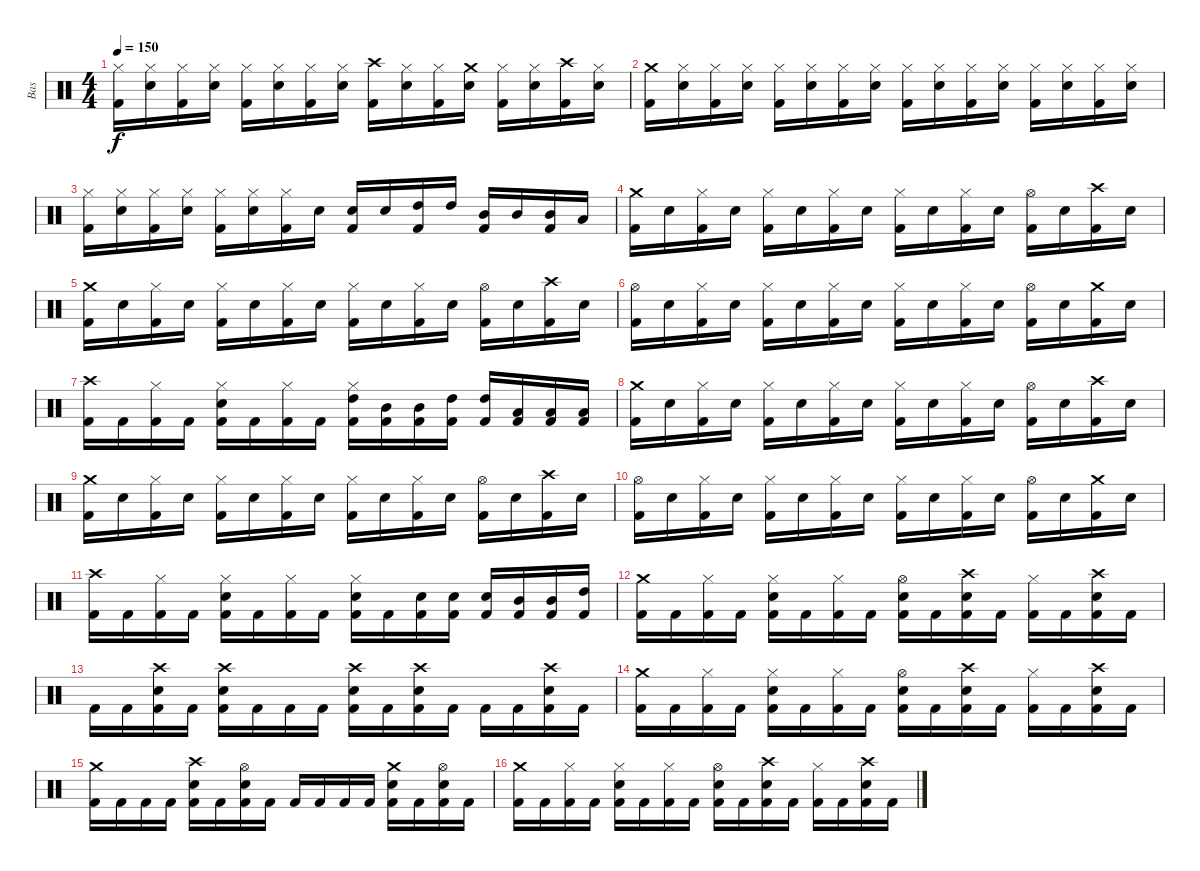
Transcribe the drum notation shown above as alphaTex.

\track ("Bas" "Bas") {instrument percussion}
\staff {score}
\articulation defaults
\ts (4 4)
\tempo 150
\clef neutral
\ks c
("Hi-Hat (closed)" "Kick (hit) 2").16{dy f} ("Hi-Hat (closed)" "Snare (hit) 2").16 ("Hi-Hat (closed)" "Kick (hit) 2").16 ("Hi-Hat (closed)" "Snare (hit) 2").16 ("Hi-Hat (closed)" "Kick (hit) 2").16 ("Hi-Hat (closed)" "Snare (hit) 2").16 ("Hi-Hat (closed)" "Kick (hit) 2").16 ("Hi-Hat (closed)" "Snare (hit) 2").16 ("Crash high (hit)" "Kick (hit) 2").16 ("Hi-Hat (closed)" "Snare (hit) 2").16 ("Hi-Hat (closed)" "Kick (hit) 2").16 ("Crash medium (hit)" "Snare (hit) 2").16 ("Hi-Hat (closed)" "Kick (hit) 2").16 ("Hi-Hat (closed)" "Snare (hit) 2").16 ("Crash high (hit)" "Kick (hit) 2").16 ("Hi-Hat (closed)" "Snare (hit) 2").16 |
("Crash medium (hit)" "Kick (hit) 2").16 ("Hi-Hat (closed)" "Snare (hit) 2").16 ("Hi-Hat (closed)" "Kick (hit) 2").16 ("Hi-Hat (closed)" "Snare (hit) 2").16 ("Hi-Hat (closed)" "Kick (hit) 2").16 ("Hi-Hat (closed)" "Snare (hit) 2").16 ("Hi-Hat (closed)" "Kick (hit) 2").16 ("Hi-Hat (closed)" "Snare (hit) 2").16 ("Hi-Hat (closed)" "Kick (hit) 2").16 ("Hi-Hat (closed)" "Snare (hit) 2").16 ("Hi-Hat (closed)" "Kick (hit) 2").16 ("Hi-Hat (closed)" "Snare (hit) 2").16 ("Hi-Hat (closed)" "Kick (hit) 2").16 ("Hi-Hat (closed)" "Snare (hit) 2").16 ("Hi-Hat (closed)" "Kick (hit) 2").16 ("Hi-Hat (closed)" "Snare (hit) 2").16 |
("Hi-Hat (closed)" "Kick (hit) 2").16 ("Hi-Hat (closed)" "Snare (hit) 2").16 ("Hi-Hat (closed)" "Kick (hit) 2").16 ("Hi-Hat (closed)" "Snare (hit) 2").16 ("Hi-Hat (closed)" "Kick (hit) 2").16 ("Hi-Hat (closed)" "Snare (hit) 2").16 ("Hi-Hat (closed)" "Kick (hit) 2").16 "Snare (hit) 2".16 ("Snare (hit) 2" "Kick (hit) 2").16 "Snare (hit) 2".16 ("High Tom (hit)" "Kick (hit) 2").16 "High Tom (hit)".16 ("Mid Tom (hit)" "Kick (hit) 2").16 "Mid Tom (hit)".16 ("Mid Tom (hit)" "Kick (hit) 2").16 "Low Tom (hit)".16 |
("Crash medium (hit)" "Kick (hit) 2").16 "Snare (hit) 2".16 ("Hi-Hat (closed)" "Kick (hit) 2").16 "Snare (hit) 2".16 ("Hi-Hat (closed)" "Kick (hit) 2").16 "Snare (hit) 2".16 ("Hi-Hat (closed)" "Kick (hit) 2").16 "Snare (hit) 2".16 ("Hi-Hat (closed)" "Kick (hit) 2").16 "Snare (hit) 2".16 ("Hi-Hat (closed)" "Kick (hit) 2").16 "Snare (hit) 2".16 ("Hi-Hat (open)" "Kick (hit) 2").16 "Snare (hit) 2".16 ("Crash high (hit)" "Kick (hit) 2").16 "Snare (hit) 2".16 |
("Crash medium (hit)" "Kick (hit) 2").16 "Snare (hit) 2".16 ("Hi-Hat (closed)" "Kick (hit) 2").16 "Snare (hit) 2".16 ("Hi-Hat (closed)" "Kick (hit) 2").16 "Snare (hit) 2".16 ("Hi-Hat (closed)" "Kick (hit) 2").16 "Snare (hit) 2".16 ("Hi-Hat (closed)" "Kick (hit) 2").16 "Snare (hit) 2".16 ("Hi-Hat (closed)" "Kick (hit) 2").16 "Snare (hit) 2".16 ("Hi-Hat (open)" "Kick (hit) 2").16 "Snare (hit) 2".16 ("Crash high (hit)" "Kick (hit) 2").16 "Snare (hit) 2".16 |
("Hi-Hat (open)" "Kick (hit) 2").16 "Snare (hit) 2".16 ("Hi-Hat (closed)" "Kick (hit) 2").16 "Snare (hit) 2".16 ("Hi-Hat (closed)" "Kick (hit) 2").16 "Snare (hit) 2".16 ("Hi-Hat (closed)" "Kick (hit) 2").16 "Snare (hit) 2".16 ("Hi-Hat (closed)" "Kick (hit) 2").16 "Snare (hit) 2".16 ("Hi-Hat (closed)" "Kick (hit) 2").16 "Snare (hit) 2".16 ("Hi-Hat (open)" "Kick (hit) 2").16 "Snare (hit) 2".16 ("Crash medium (hit)" "Kick (hit) 2").16 "Snare (hit) 2".16 |
("Crash high (hit)" "Kick (hit) 2").16 "Kick (hit) 2".16 ("Hi-Hat (closed)" "Kick (hit) 2").16 "Kick (hit) 2".16 ("Hi-Hat (closed)" "Snare (hit) 2" "Kick (hit) 2").16 "Kick (hit) 2".16 ("Hi-Hat (closed)" "Kick (hit) 2").16 "Kick (hit) 2".16 ("Hi-Hat (closed)" "High Tom (hit)" "Kick (hit) 2").16 ("Mid Tom (hit)" "Kick (hit) 2").16 ("Mid Tom (hit)" "Kick (hit) 2").16 ("High Tom (hit)" "Kick (hit) 2").16 ("High Tom (hit)" "Kick (hit) 2").16 ("Low Tom (hit)" "Kick (hit) 2").16 ("Low Tom (hit)" "Kick (hit) 2").16 ("Low Tom (hit)" "Kick (hit) 2").16 |
("Crash medium (hit)" "Kick (hit) 2").16 "Snare (hit) 2".16 ("Hi-Hat (closed)" "Kick (hit) 2").16 "Snare (hit) 2".16 ("Hi-Hat (closed)" "Kick (hit) 2").16 "Snare (hit) 2".16 ("Hi-Hat (closed)" "Kick (hit) 2").16 "Snare (hit) 2".16 ("Hi-Hat (closed)" "Kick (hit) 2").16 "Snare (hit) 2".16 ("Hi-Hat (closed)" "Kick (hit) 2").16 "Snare (hit) 2".16 ("Hi-Hat (open)" "Kick (hit) 2").16 "Snare (hit) 2".16 ("Crash high (hit)" "Kick (hit) 2").16 "Snare (hit) 2".16 |
("Crash medium (hit)" "Kick (hit) 2").16 "Snare (hit) 2".16 ("Hi-Hat (closed)" "Kick (hit) 2").16 "Snare (hit) 2".16 ("Hi-Hat (closed)" "Kick (hit) 2").16 "Snare (hit) 2".16 ("Hi-Hat (closed)" "Kick (hit) 2").16 "Snare (hit) 2".16 ("Hi-Hat (closed)" "Kick (hit) 2").16 "Snare (hit) 2".16 ("Hi-Hat (closed)" "Kick (hit) 2").16 "Snare (hit) 2".16 ("Hi-Hat (open)" "Kick (hit) 2").16 "Snare (hit) 2".16 ("Crash high (hit)" "Kick (hit) 2").16 "Snare (hit) 2".16 |
("Hi-Hat (open)" "Kick (hit) 2").16 "Snare (hit) 2".16 ("Hi-Hat (closed)" "Kick (hit) 2").16 "Snare (hit) 2".16 ("Hi-Hat (closed)" "Kick (hit) 2").16 "Snare (hit) 2".16 ("Hi-Hat (closed)" "Kick (hit) 2").16 "Snare (hit) 2".16 ("Hi-Hat (closed)" "Kick (hit) 2").16 "Snare (hit) 2".16 ("Hi-Hat (closed)" "Kick (hit) 2").16 "Snare (hit) 2".16 ("Hi-Hat (open)" "Kick (hit) 2").16 "Snare (hit) 2".16 ("Crash medium (hit)" "Kick (hit) 2").16 "Snare (hit) 2".16 |
("Crash high (hit)" "Kick (hit) 2").16 "Kick (hit) 2".16 ("Hi-Hat (closed)" "Kick (hit) 2").16 "Kick (hit) 2".16 ("Hi-Hat (closed)" "Snare (hit) 2" "Kick (hit) 2").16 "Kick (hit) 2".16 ("Hi-Hat (closed)" "Kick (hit) 2").16 "Kick (hit) 2".16 ("Hi-Hat (closed)" "Snare (hit) 2" "Kick (hit) 2").16 "Kick (hit) 2".16 ("Snare (hit) 2" "Kick (hit) 2").16 ("Snare (hit) 2" "Kick (hit) 2").16 ("Snare (hit) 2" "Kick (hit) 2").16 ("Mid Tom (hit)" "Kick (hit) 2").16 ("Mid Tom (hit)" "Kick (hit) 2").16 ("High Tom (hit)" "Kick (hit) 2").16 |
("Crash medium (hit)" "Kick (hit) 2").16 "Kick (hit) 2".16 ("Hi-Hat (closed)" "Kick (hit) 2").16 "Kick (hit) 2".16 ("Hi-Hat (closed)" "Snare (hit) 2" "Kick (hit) 2").16 "Kick (hit) 2".16 ("Hi-Hat (closed)" "Kick (hit) 2").16 "Kick (hit) 2".16 ("Hi-Hat (open)" "Snare (hit) 2" "Kick (hit) 2").16 "Kick (hit) 2".16 ("Crash high (hit)" "Snare (hit) 2" "Kick (hit) 2").16 "Kick (hit) 2".16 ("Hi-Hat (closed)" "Kick (hit) 2").16 "Kick (hit) 2".16 ("Crash high (hit)" "Snare (hit) 2" "Kick (hit) 2").16 "Kick (hit) 2".16 |
"Kick (hit) 2".16 "Kick (hit) 2".16 ("Crash high (hit)" "Snare (hit) 2" "Kick (hit) 2").16 "Kick (hit) 2".16 ("Crash high (hit)" "Snare (hit) 2" "Kick (hit) 2").16 "Kick (hit) 2".16 "Kick (hit) 2".16 "Kick (hit) 2".16 ("Crash high (hit)" "Snare (hit) 2" "Kick (hit) 2").16 "Kick (hit) 2".16 ("Crash high (hit)" "Snare (hit) 2" "Kick (hit) 2").16 "Kick (hit) 2".16 "Kick (hit) 2".16 "Kick (hit) 2".16 ("Crash high (hit)" "Snare (hit) 2" "Kick (hit) 2").16 "Kick (hit) 2".16 |
("Crash medium (hit)" "Kick (hit) 2").16 "Kick (hit) 2".16 ("Hi-Hat (closed)" "Kick (hit) 2").16 "Kick (hit) 2".16 ("Hi-Hat (closed)" "Snare (hit) 2" "Kick (hit) 2").16 "Kick (hit) 2".16 ("Hi-Hat (closed)" "Kick (hit) 2").16 "Kick (hit) 2".16 ("Hi-Hat (open)" "Snare (hit) 2" "Kick (hit) 2").16 "Kick (hit) 2".16 ("Crash high (hit)" "Snare (hit) 2" "Kick (hit) 2").16 "Kick (hit) 2".16 ("Hi-Hat (closed)" "Kick (hit) 2").16 "Kick (hit) 2".16 ("Crash high (hit)" "Snare (hit) 2" "Kick (hit) 2").16 "Kick (hit) 2".16 |
("Crash medium (hit)" "Kick (hit) 2").16 "Kick (hit) 2".16 "Kick (hit) 2".16 "Kick (hit) 2".16 ("Crash high (hit)" "Snare (hit) 2" "Kick (hit) 2").16 "Kick (hit) 2".16 ("Hi-Hat (open)" "Snare (hit) 2" "Kick (hit) 2").16 "Kick (hit) 2".16 "Kick (hit) 2".16 "Kick (hit) 2".16 "Kick (hit) 2".16 "Kick (hit) 2".16 ("Crash medium (hit)" "Snare (hit) 2" "Kick (hit) 2").16 "Kick (hit) 2".16 ("Hi-Hat (open)" "Snare (hit) 2" "Kick (hit) 2").16 "Kick (hit) 2".16 |
("Crash medium (hit)" "Kick (hit) 2").16 "Kick (hit) 2".16 ("Hi-Hat (closed)" "Kick (hit) 2").16 "Kick (hit) 2".16 ("Hi-Hat (closed)" "Snare (hit) 2" "Kick (hit) 2").16 "Kick (hit) 2".16 ("Hi-Hat (closed)" "Kick (hit) 2").16 "Kick (hit) 2".16 ("Hi-Hat (open)" "Snare (hit) 2" "Kick (hit) 2").16 "Kick (hit) 2".16 ("Crash high (hit)" "Snare (hit) 2" "Kick (hit) 2").16 "Kick (hit) 2".16 ("Hi-Hat (closed)" "Kick (hit) 2").16 "Kick (hit) 2".16 ("Crash high (hit)" "Snare (hit) 2" "Kick (hit) 2").16 "Kick (hit) 2".16
